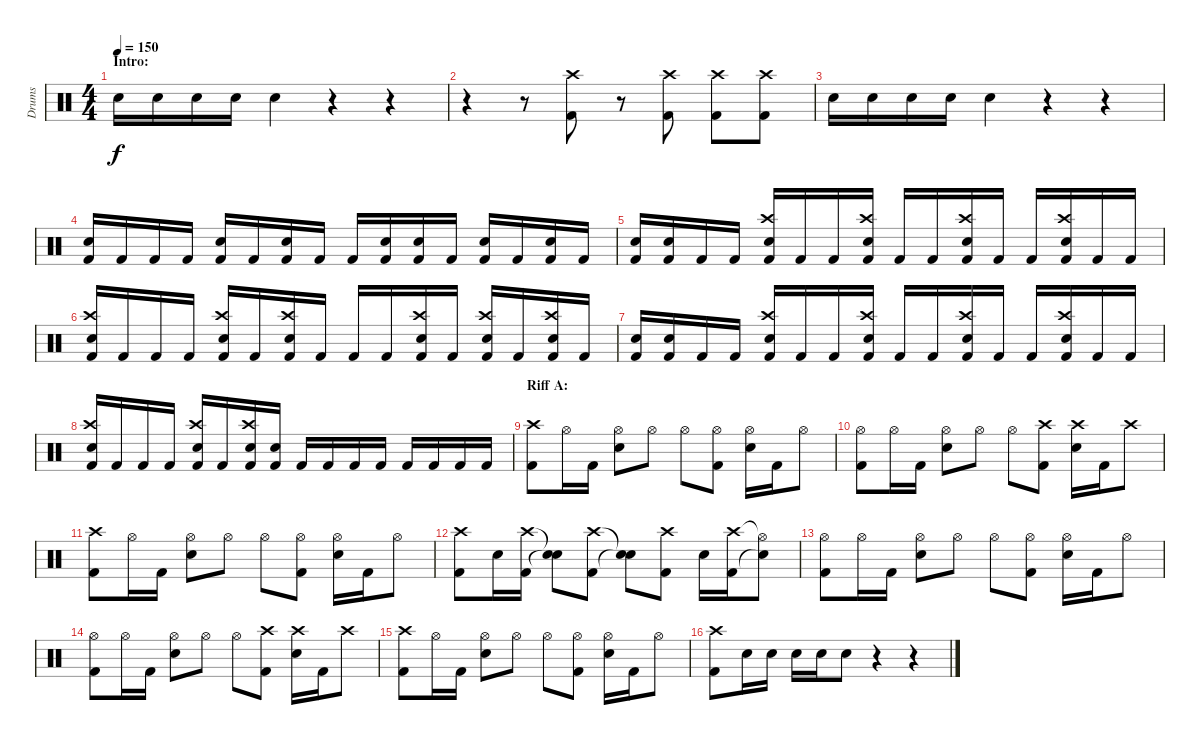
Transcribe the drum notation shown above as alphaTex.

\track ("Drums" "Drums") {instrument percussion}
\staff {score}
\articulation defaults
\ts (4 4)
\section ("" "Intro:")
\tempo 150
\clef neutral
\ks c "Electric Snare (hit)".16{dy f} "Electric Snare (hit)".16 "Electric Snare (hit)".16 "Electric Snare (hit)".16 "Electric Snare (hit)".4
r.4 r.4 |
r.4 r.8 ("Crash high (hit)" "Kick (hit) 2").8 r.8 ("Crash high (hit)" "Kick (hit) 2").8 ("Crash high (hit)" "Kick (hit) 2").8 ("Crash high (hit)" "Kick (hit) 2").8 |
"Electric Snare (hit)".16 "Electric Snare (hit)".16 "Electric Snare (hit)".16 "Electric Snare (hit)".16 "Electric Snare (hit)".4 r.4 r.4 |
("Electric Snare (hit)" "Kick (hit) 2").16 "Kick (hit) 2".16 "Kick (hit) 2".16 "Kick (hit) 2".16 ("Electric Snare (hit)" "Kick (hit) 2").16 "Kick (hit) 2".16 ("Electric Snare (hit)" "Kick (hit) 2").16 "Kick (hit) 2".16 "Kick (hit) 2".16 ("Electric Snare (hit)" "Kick (hit) 2").16 ("Electric Snare (hit)" "Kick (hit) 2").16 "Kick (hit) 2".16 ("Electric Snare (hit)" "Kick (hit) 2").16 "Kick (hit) 2".16 ("Electric Snare (hit)" "Kick (hit) 2").16 "Kick (hit) 2".16 |
("Electric Snare (hit)" "Kick (hit) 2").16 ("Electric Snare (hit)" "Kick (hit) 2").16 "Kick (hit) 2".16 "Kick (hit) 2".16 ("Crash high (hit)" "Electric Snare (hit)" "Kick (hit) 2").16 "Kick (hit) 2".16 "Kick (hit) 2".16 ("Crash high (hit)" "Electric Snare (hit)" "Kick (hit) 2").16 "Kick (hit) 2".16 "Kick (hit) 2".16 ("Crash high (hit)" "Electric Snare (hit)" "Kick (hit) 2").16 "Kick (hit) 2".16 "Kick (hit) 2".16 ("Crash high (hit)" "Electric Snare (hit)" "Kick (hit) 2").16 "Kick (hit) 2".16 "Kick (hit) 2".16 |
("Crash high (hit)" "Electric Snare (hit)" "Kick (hit) 2").16 "Kick (hit) 2".16 "Kick (hit) 2".16 "Kick (hit) 2".16 ("Crash high (hit)" "Electric Snare (hit)" "Kick (hit) 2").16 "Kick (hit) 2".16 ("Crash high (hit)" "Electric Snare (hit)" "Kick (hit) 2").16 "Kick (hit) 2".16 "Kick (hit) 2".16 "Kick (hit) 2".16 ("Crash high (hit)" "Electric Snare (hit)" "Kick (hit) 2").16 "Kick (hit) 2".16 ("Crash high (hit)" "Electric Snare (hit)" "Kick (hit) 2").16 "Kick (hit) 2".16 ("Crash high (hit)" "Electric Snare (hit)" "Kick (hit) 2").16 "Kick (hit) 2".16 |
("Electric Snare (hit)" "Kick (hit) 2").16 ("Electric Snare (hit)" "Kick (hit) 2").16 "Kick (hit) 2".16 "Kick (hit) 2".16 ("Crash high (hit)" "Electric Snare (hit)" "Kick (hit) 2").16 "Kick (hit) 2".16 "Kick (hit) 2".16 ("Crash high (hit)" "Electric Snare (hit)" "Kick (hit) 2").16 "Kick (hit) 2".16 "Kick (hit) 2".16 ("Crash high (hit)" "Electric Snare (hit)" "Kick (hit) 2").16 "Kick (hit) 2".16 "Kick (hit) 2".16 ("Crash high (hit)" "Electric Snare (hit)" "Kick (hit) 2").16 "Kick (hit) 2".16 "Kick (hit) 2".16 |
("Crash high (hit)" "Electric Snare (hit)" "Kick (hit) 2").16 "Kick (hit) 2".16 "Kick (hit) 2".16 "Kick (hit) 2".16 ("Crash high (hit)" "Electric Snare (hit)" "Kick (hit) 2").16 "Kick (hit) 2".16 ("Crash high (hit)" "Electric Snare (hit)" "Kick (hit) 2").16 ("Electric Snare (hit)" "Kick (hit) 2").16 "Kick (hit) 2".16 "Kick (hit) 2".16 "Kick (hit) 2".16 "Kick (hit) 2".16 "Kick (hit) 2".16 "Kick (hit) 2".16 "Kick (hit) 2".16 "Kick (hit) 2".16 |
\section ("" "Riff A:")
("Crash high (hit)" "Kick (hit) 2").8 "Hi-Hat (open)".16 "Kick (hit) 2".16 ("Hi-Hat (open)" "Electric Snare (hit)").8 "Hi-Hat (open)".8 "Hi-Hat (open)".8 ("Hi-Hat (open)" "Kick (hit) 2").8 ("Hi-Hat (open)" "Electric Snare (hit)").16 "Kick (hit) 2".16 "Hi-Hat (open)".8 |
("Hi-Hat (open)" "Kick (hit) 2").8 "Hi-Hat (open)".16 "Kick (hit) 2".16 ("Hi-Hat (open)" "Electric Snare (hit)").8 "Hi-Hat (open)".8 "Hi-Hat (open)".8 ("Crash high (hit)" "Kick (hit) 2").8 ("Crash high (hit)" "Electric Snare (hit)").16 "Kick (hit) 2".16 "Crash high (hit)".8 |
("Crash high (hit)" "Kick (hit) 2").8 "Hi-Hat (open)".16 "Kick (hit) 2".16 ("Hi-Hat (open)" "Electric Snare (hit)").8 "Hi-Hat (open)".8 "Hi-Hat (open)".8 ("Hi-Hat (open)" "Kick (hit) 2").8 ("Hi-Hat (open)" "Electric Snare (hit)").16 "Kick (hit) 2".16 "Hi-Hat (open)".8 |
("Crash high (hit)" "Kick (hit) 2").8 "Electric Snare (hit)".16 ("Crash high (hit)" "Kick (hit) 2").16 ("Snare (hit)"{t} "Snare (hit)"{t}).8 ("Crash high (hit)" "Kick (hit) 2").8 ("Snare (hit)"{t} "Snare (hit)"{t}).8 ("Crash high (hit)" "Kick (hit) 2").8 "Electric Snare (hit)".16 ("Crash high (hit)" "Kick (hit) 2").16 ("Hi-Hat (open)"{t} "Snare (hit)"{t}).8 |
("Hi-Hat (open)" "Kick (hit) 2").8 "Hi-Hat (open)".16 "Kick (hit) 2".16 ("Hi-Hat (open)" "Electric Snare (hit)").8 "Hi-Hat (open)".8 "Hi-Hat (open)".8 ("Hi-Hat (open)" "Kick (hit) 2").8 ("Hi-Hat (open)" "Electric Snare (hit)").16 "Kick (hit) 2".16 "Hi-Hat (open)".8 |
("Hi-Hat (open)" "Kick (hit) 2").8 "Hi-Hat (open)".16 "Kick (hit) 2".16 ("Hi-Hat (open)" "Electric Snare (hit)").8 "Hi-Hat (open)".8 "Hi-Hat (open)".8 ("Crash high (hit)" "Kick (hit) 2").8 ("Crash high (hit)" "Electric Snare (hit)").16 "Kick (hit) 2".16 "Crash high (hit)".8 |
("Crash high (hit)" "Kick (hit) 2").8 "Hi-Hat (open)".16 "Kick (hit) 2".16 ("Hi-Hat (open)" "Electric Snare (hit)").8 "Hi-Hat (open)".8 "Hi-Hat (open)".8 ("Hi-Hat (open)" "Kick (hit) 2").8 ("Hi-Hat (open)" "Electric Snare (hit)").16 "Kick (hit) 2".16 "Hi-Hat (open)".8 |
("Crash high (hit)" "Kick (hit) 2").8 "Electric Snare (hit)".16 "Electric Snare (hit)".16 "Electric Snare (hit)".16 "Electric Snare (hit)".16 "Electric Snare (hit)".8 r.4 r.4
